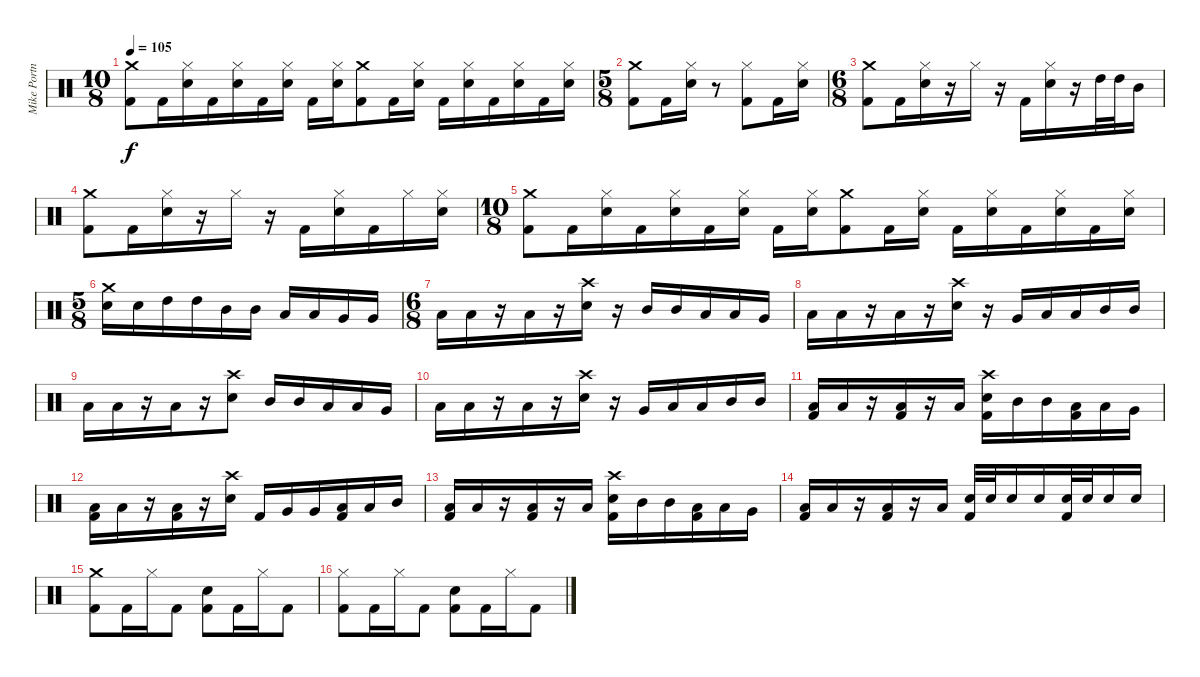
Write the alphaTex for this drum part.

\track ("Mike Portnoy" "Mike Portn") {instrument percussion}
\staff {score}
\articulation defaults
\ts (10 8)
\tempo 105
\clef neutral
\ks c
("Crash medium (hit)" "Kick (hit) 2").8{dy f} "Kick (hit) 2".16 ("Hi-Hat (closed)" "Electric Snare (hit)").16 "Kick (hit) 2".16 ("Hi-Hat (closed)" "Electric Snare (hit)").16 "Kick (hit) 2".16 ("Hi-Hat (closed)" "Electric Snare (hit)").16 "Kick (hit) 2".16 ("Hi-Hat (closed)" "Electric Snare (hit)").16 ("Crash medium (hit)" "Kick (hit) 2").8 "Kick (hit) 2".16 ("Hi-Hat (closed)" "Electric Snare (hit)").16 "Kick (hit) 2".16 ("Hi-Hat (closed)" "Electric Snare (hit)").16 "Kick (hit) 2".16 ("Hi-Hat (closed)" "Electric Snare (hit)").16 "Kick (hit) 2".16 ("Hi-Hat (closed)" "Electric Snare (hit)").16 |
\ts (5 8)
("Crash medium (hit)" "Kick (hit) 2").8 "Kick (hit) 2".16 ("Hi-Hat (closed)" "Electric Snare (hit)").16 r.8 ("Hi-Hat (closed)" "Kick (hit) 2").8 "Kick (hit) 2".16 ("Hi-Hat (closed)" "Electric Snare (hit)").16 |
\ts (6 8)
("Crash medium (hit)" "Kick (hit) 2").8 "Kick (hit) 2".16 ("Hi-Hat (closed)" "Electric Snare (hit)").16 r.16 "Hi-Hat (closed)".16 r.16 "Kick (hit) 2".16 ("Hi-Hat (closed)" "Electric Snare (hit)").16 r.16 "High Tom (hit)".32 "High Tom (hit)".32 "Mid Tom (hit)".16 |
("Crash medium (hit)" "Kick (hit) 2").8 "Kick (hit) 2".16 ("Hi-Hat (closed)" "Electric Snare (hit)").16 r.16 "Hi-Hat (closed)".16 r.16 "Kick (hit) 2".16 ("Hi-Hat (closed)" "Electric Snare (hit)").16 "Kick (hit) 2".16 "Hi-Hat (closed)".16 ("Hi-Hat (closed)" "Electric Snare (hit)").16 |
\ts (10 8)
("Crash medium (hit)" "Kick (hit) 2").8 "Kick (hit) 2".16 ("Hi-Hat (closed)" "Electric Snare (hit)").16 "Kick (hit) 2".16 ("Hi-Hat (closed)" "Electric Snare (hit)").16 "Kick (hit) 2".16 ("Hi-Hat (closed)" "Electric Snare (hit)").16 "Kick (hit) 2".16 ("Hi-Hat (closed)" "Electric Snare (hit)").16 ("Crash medium (hit)" "Kick (hit) 2").8 "Kick (hit) 2".16 ("Hi-Hat (closed)" "Electric Snare (hit)").16 "Kick (hit) 2".16 ("Hi-Hat (closed)" "Electric Snare (hit)").16 "Kick (hit) 2".16 ("Hi-Hat (closed)" "Electric Snare (hit)").16 "Kick (hit) 2".16 ("Hi-Hat (closed)" "Electric Snare (hit)").16 |
\ts (5 8)
("Crash medium (hit)" "Electric Snare (hit)").16 "Electric Snare (hit)".16 "High Tom (hit)".16 "High Tom (hit)".16 "Mid Tom (hit)".16 "Mid Tom (hit)".16 "Low Tom (hit)".16 "Low Tom (hit)".16 "Very Low Tom (hit)".16 "Very Low Tom (hit)".16 |
\ts (6 8)
"Low Floor Tom (hit)".16 "Low Floor Tom (hit)".16 r.16 "Low Floor Tom (hit)".16 r.16 ("Crash high (hit)" "Electric Snare (hit)").16 r.16 "Mid Tom (hit)".16 "Mid Tom (hit)".16 "Low Tom (hit)".16 "Low Tom (hit)".16 "Very Low Tom (hit)".16 |
"Low Floor Tom (hit)".16 "Low Floor Tom (hit)".16 r.16 "Low Floor Tom (hit)".16 r.16 ("Crash high (hit)" "Electric Snare (hit)").16 r.16 "Very Low Tom (hit)".16 "Low Tom (hit)".16 "Low Tom (hit)".16 "Mid Tom (hit)".16 "Mid Tom (hit)".16 |
"Low Floor Tom (hit)".16 "Low Floor Tom (hit)".16 r.16 "Low Floor Tom (hit)".16 r.16 ("Crash high (hit)" "Electric Snare (hit)").8 "Mid Tom (hit)".16 "Mid Tom (hit)".16 "Low Tom (hit)".16 "Low Tom (hit)".16 "Very Low Tom (hit)".16 |
"Low Floor Tom (hit)".16 "Low Floor Tom (hit)".16 r.16 "Low Floor Tom (hit)".16 r.16 ("Crash high (hit)" "Electric Snare (hit)").16 r.16 "Very Low Tom (hit)".16 "Low Tom (hit)".16 "Low Tom (hit)".16 "Mid Tom (hit)".16 "Mid Tom (hit)".16 |
("Low Floor Tom (hit)" "Kick (hit) 2").16 "Low Floor Tom (hit)".16 r.16 ("Low Floor Tom (hit)" "Kick (hit) 2").16 r.16 "Low Floor Tom (hit)".16 ("Crash high (hit)" "Electric Snare (hit)" "Kick (hit) 2").16 "Mid Tom (hit)".16 "Mid Tom (hit)".16 ("Low Tom (hit)" "Kick (hit) 2").16 "Low Tom (hit)".16 "Very Low Tom (hit)".16 |
("Low Floor Tom (hit)" "Kick (hit) 2").16 "Low Floor Tom (hit)".16 r.16 ("Low Floor Tom (hit)" "Kick (hit) 2").16 r.16 ("Crash high (hit)" "Electric Snare (hit)").16 "Kick (hit) 2".16 "Very Low Tom (hit)".16 "Very Low Tom (hit)".16 ("Low Tom (hit)" "Kick (hit) 2").16 "Low Tom (hit)".16 "Mid Tom (hit)".16 |
("Low Floor Tom (hit)" "Kick (hit) 2").16 "Low Floor Tom (hit)".16 r.16 ("Low Floor Tom (hit)" "Kick (hit) 2").16 r.16 "Low Floor Tom (hit)".16 ("Crash high (hit)" "Electric Snare (hit)" "Kick (hit) 2").16 "Mid Tom (hit)".16 "Mid Tom (hit)".16 ("Low Tom (hit)" "Kick (hit) 2").16 "Low Tom (hit)".16 "Very Low Tom (hit)".16 |
("Low Floor Tom (hit)" "Kick (hit) 2").16 "Low Floor Tom (hit)".16 r.16 ("Low Floor Tom (hit)" "Kick (hit) 2").16 r.16 "Low Floor Tom (hit)".16 ("Electric Snare (hit)" "Kick (hit) 2").32 "Electric Snare (hit)".32 "Electric Snare (hit)".16 "Electric Snare (hit)".16 ("Electric Snare (hit)" "Kick (hit) 2").32 "Electric Snare (hit)".32 "Electric Snare (hit)".16 "Electric Snare (hit)".16 |
("Crash medium (hit)" "Kick (hit) 2").8 "Kick (hit) 2".16 "Hi-Hat (closed)".16 "Kick (hit) 2".8 ("Electric Snare (hit)" "Kick (hit) 2").8 "Kick (hit) 2".16 "Hi-Hat (closed)".16 "Kick (hit) 2".8 |
("Hi-Hat (closed)" "Kick (hit) 2").8 "Kick (hit) 2".16 "Hi-Hat (closed)".16 "Kick (hit) 2".8 ("Electric Snare (hit)" "Kick (hit) 2").8 "Kick (hit) 2".16 "Hi-Hat (closed)".16 "Kick (hit) 2".8
